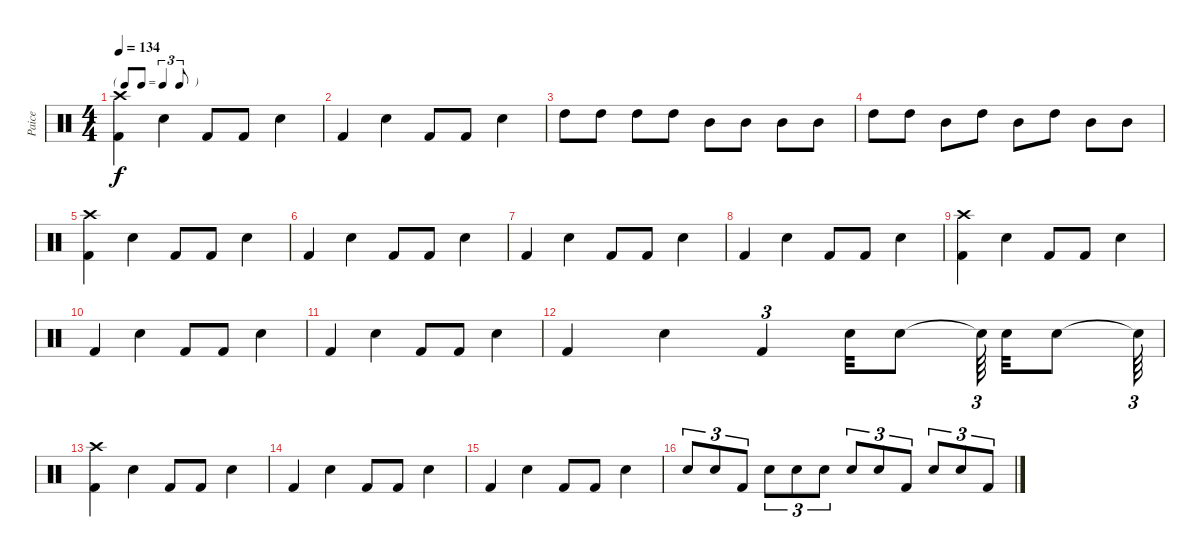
\track ("Paice" "Paice") {instrument percussion}
\staff {score}
\articulation defaults
\ts (4 4)
\tf triplet8th
\tempo 134
\clef neutral
\ks c
("Kick (hit) 2" "Crash high (hit)").4{dy f} "Electric Snare (hit)".4 "Kick (hit) 2".8 "Kick (hit) 2".8 "Electric Snare (hit)".4 |
"Kick (hit) 2".4 "Electric Snare (hit)".4 "Kick (hit) 2".8 "Kick (hit) 2".8 "Electric Snare (hit)".4 |
"High Tom (hit)".8 "High Tom (hit)".8 "High Tom (hit)".8 "High Tom (hit)".8 "Mid Tom (hit)".8 "Mid Tom (hit)".8 "Mid Tom (hit)".8 "Mid Tom (hit)".8 |
"High Tom (hit)".8 "High Tom (hit)".8 "Mid Tom (hit)".8 "High Tom (hit)".8 "Mid Tom (hit)".8 "High Tom (hit)".8 "Mid Tom (hit)".8 "Mid Tom (hit)".8 |
("Kick (hit) 2" "Crash high (hit)").4 "Electric Snare (hit)".4 "Kick (hit) 2".8 "Kick (hit) 2".8 "Electric Snare (hit)".4 |
"Kick (hit) 2".4 "Electric Snare (hit)".4 "Kick (hit) 2".8 "Kick (hit) 2".8 "Electric Snare (hit)".4 |
"Kick (hit) 2".4 "Electric Snare (hit)".4 "Kick (hit) 2".8 "Kick (hit) 2".8 "Electric Snare (hit)".4 |
"Kick (hit) 2".4 "Electric Snare (hit)".4 "Kick (hit) 2".8 "Kick (hit) 2".8 "Electric Snare (hit)".4 |
("Kick (hit) 2" "Crash high (hit)").4 "Electric Snare (hit)".4 "Kick (hit) 2".8 "Kick (hit) 2".8 "Electric Snare (hit)".4 |
"Kick (hit) 2".4 "Electric Snare (hit)".4 "Kick (hit) 2".8 "Kick (hit) 2".8 "Electric Snare (hit)".4 |
"Kick (hit) 2".4 "Electric Snare (hit)".4 "Kick (hit) 2".8 "Kick (hit) 2".8 "Electric Snare (hit)".4 |
"Kick (hit) 2".4 "Electric Snare (hit)".4 "Kick (hit) 2".4{tu (3 2)} "Electric Snare (hit)".32 "Electric Snare (hit)".8 "Electric Snare (hit)"{t}.64{tu (3 2) beam splitsecondary} "Electric Snare (hit)".32 "Electric Snare (hit)".8 "Electric Snare (hit)"{t}.64{tu (3 2)} |
("Kick (hit) 2" "Crash high (hit)").4 "Electric Snare (hit)".4 "Kick (hit) 2".8 "Kick (hit) 2".8 "Electric Snare (hit)".4 |
"Kick (hit) 2".4 "Electric Snare (hit)".4 "Kick (hit) 2".8 "Kick (hit) 2".8 "Electric Snare (hit)".4 |
"Kick (hit) 2".4 "Electric Snare (hit)".4 "Kick (hit) 2".8 "Kick (hit) 2".8 "Electric Snare (hit)".4 |
"Electric Snare (hit)".8{tu (3 2)} "Electric Snare (hit)".8{tu (3 2)} "Kick (hit) 2".8{tu (3 2)} "Electric Snare (hit)".8{tu (3 2)} "Electric Snare (hit)".8{tu (3 2)} "Electric Snare (hit)".8{tu (3 2)} "Electric Snare (hit)".8{tu (3 2)} "Electric Snare (hit)".8{tu (3 2)} "Kick (hit) 2".8{tu (3 2)} "Electric Snare (hit)".8{tu (3 2)} "Electric Snare (hit)".8{tu (3 2)} "Kick (hit) 2".8{tu (3 2)}
